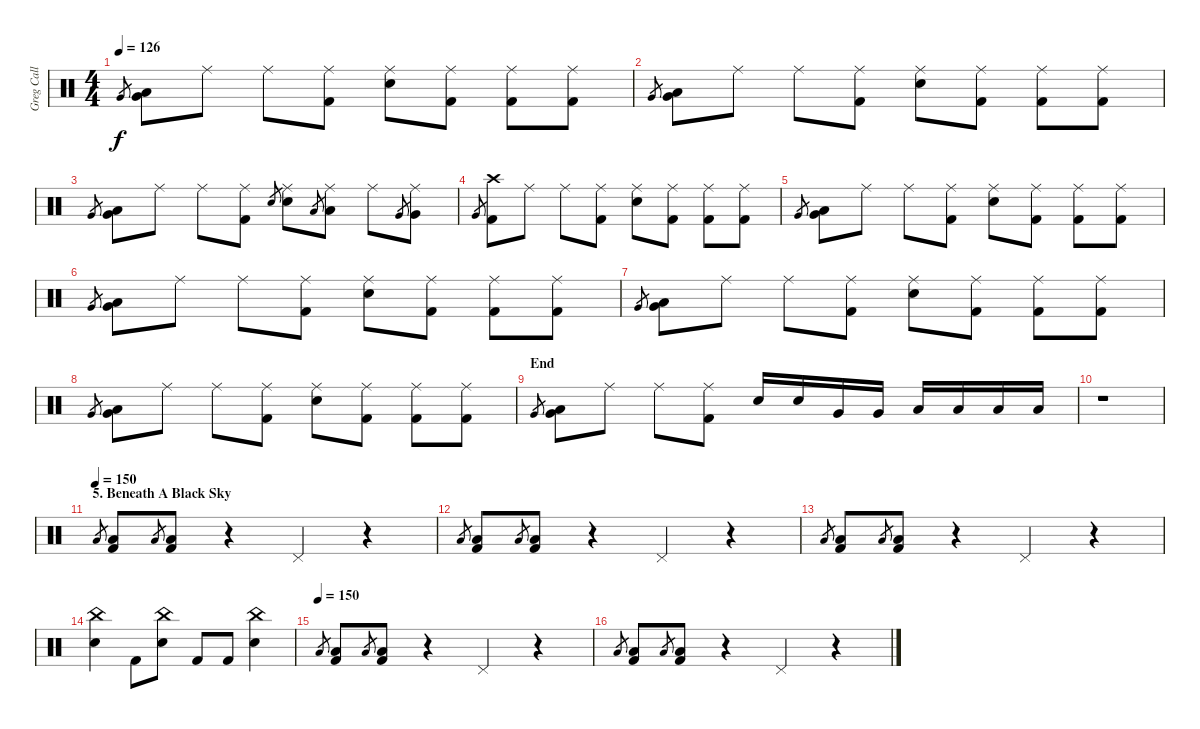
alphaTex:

\track ("Greg Call (Drums)" "Greg Call ") {instrument percussion}
\staff {score}
\articulation defaults
\ts (4 4)
\tempo 126
\clef neutral
\ks c "Very Low Tom (hit)".8{gr dy f}
("Very Low Tom (hit)" "Low Floor Tom (hit)").8 "Ride (middle)".8 "Ride (middle)".8 ("Ride (middle)" "Kick (hit) 2").8 ("Ride (middle)" "Snare (hit) 2").8 ("Ride (middle)" "Kick (hit) 2").8 ("Ride (middle)" "Kick (hit) 2").8 ("Ride (middle)" "Kick (hit) 2").8 |
"Very Low Tom (hit)".8{gr} ("Very Low Tom (hit)" "Low Floor Tom (hit)").8{volume 5} "Ride (middle)".8 "Ride (middle)".8 ("Ride (middle)" "Kick (hit) 2").8 ("Ride (middle)" "Snare (hit) 2").8 ("Ride (middle)" "Kick (hit) 2").8 ("Ride (middle)" "Kick (hit) 2").8 ("Ride (middle)" "Kick (hit) 2").8 |
"Very Low Tom (hit)".8{gr} ("Very Low Tom (hit)" "Low Floor Tom (hit)").8 "Ride (middle)".8 "Ride (middle)".8 ("Ride (middle)" "Kick (hit) 2").8 "Snare (hit) 2".8{gr} ("Ride (middle)" "Snare (hit) 2").8 "Low Tom (hit)".8{gr} ("Ride (middle)" "Low Tom (hit)").8 "Ride (middle)".8 "Very Low Tom (hit)".8{gr} ("Ride (middle)" "Very Low Tom (hit)").8 |
"Very Low Tom (hit)".8{gr} ("Crash high (hit)" "Kick (hit) 2").8 "Ride (middle)".8 "Ride (middle)".8 ("Ride (middle)" "Kick (hit) 2").8 ("Ride (middle)" "Snare (hit) 2").8 ("Ride (middle)" "Kick (hit) 2").8 ("Ride (middle)" "Kick (hit) 2").8 ("Ride (middle)" "Kick (hit) 2").8 |
"Very Low Tom (hit)".8{gr} ("Very Low Tom (hit)" "Low Floor Tom (hit)").8 "Ride (middle)".8 "Ride (middle)".8 ("Ride (middle)" "Kick (hit) 2").8 ("Ride (middle)" "Snare (hit) 2").8 ("Ride (middle)" "Kick (hit) 2").8 ("Ride (middle)" "Kick (hit) 2").8 ("Ride (middle)" "Kick (hit) 2").8 |
"Very Low Tom (hit)".8{gr} ("Very Low Tom (hit)" "Low Floor Tom (hit)").8 "Ride (middle)".8 "Ride (middle)".8 ("Ride (middle)" "Kick (hit) 2").8 ("Ride (middle)" "Snare (hit) 2").8 ("Ride (middle)" "Kick (hit) 2").8 ("Ride (middle)" "Kick (hit) 2").8 ("Ride (middle)" "Kick (hit) 2").8 |
"Very Low Tom (hit)".8{gr} ("Very Low Tom (hit)" "Low Floor Tom (hit)").8 "Ride (middle)".8 "Ride (middle)".8 ("Ride (middle)" "Kick (hit) 2").8 ("Ride (middle)" "Snare (hit) 2").8 ("Ride (middle)" "Kick (hit) 2").8 ("Ride (middle)" "Kick (hit) 2").8 ("Ride (middle)" "Kick (hit) 2").8 |
"Very Low Tom (hit)".8{gr} ("Very Low Tom (hit)" "Low Floor Tom (hit)").8 "Ride (middle)".8 "Ride (middle)".8 ("Ride (middle)" "Kick (hit) 2").8 ("Ride (middle)" "Snare (hit) 2").8 ("Ride (middle)" "Kick (hit) 2").8 ("Ride (middle)" "Kick (hit) 2").8 ("Ride (middle)" "Kick (hit) 2").8 |
\section ("" "End")
"Very Low Tom (hit)".8{gr} ("Very Low Tom (hit)" "Low Floor Tom (hit)").8 "Ride (middle)".8 "Ride (middle)".8 ("Ride (middle)" "Kick (hit) 2").8 "Snare (hit) 2".16 "Snare (hit) 2".16 "Very Low Tom (hit)".16 "Very Low Tom (hit)".16 "Low Tom (hit)".16 "Low Tom (hit)".16 "Low Floor Tom (hit)".16 "Low Floor Tom (hit)".16 |
r.1 |
\section ("" "5. Beneath A Black Sky")
\tempo (150)
"Low Floor Tom (hit)".8{gr} ("Low Floor Tom (hit)" "Kick (hit) 2").8{volume 16} "Low Floor Tom (hit)".8{gr} ("Low Floor Tom (hit)" "Kick (hit) 2").8 r.4 "Pedal Hi-Hat (hit)".4 r.4 |
"Low Floor Tom (hit)".8{gr} ("Low Floor Tom (hit)" "Kick (hit) 2").8{volume 16} "Low Floor Tom (hit)".8{gr} ("Low Floor Tom (hit)" "Kick (hit) 2").8 r.4 "Pedal Hi-Hat (hit)".4 r.4 |
"Low Floor Tom (hit)".8{gr} ("Low Floor Tom (hit)" "Kick (hit) 2").8{volume 16} "Low Floor Tom (hit)".8{gr} ("Low Floor Tom (hit)" "Kick (hit) 2").8 r.4 "Pedal Hi-Hat (hit)".4 r.4 |
("China (hit)" "Snare (hit) 2").4 "Kick (hit) 2".8 ("China (hit)" "Snare (hit) 2").8 "Kick (hit) 2".8 "Kick (hit) 2".8 ("China (hit)" "Snare (hit) 2").4 |
\tempo (150)
"Low Floor Tom (hit)".8{gr} ("Low Floor Tom (hit)" "Kick (hit) 2").8{volume 16} "Low Floor Tom (hit)".8{gr} ("Low Floor Tom (hit)" "Kick (hit) 2").8 r.4 "Pedal Hi-Hat (hit)".4 r.4 |
"Low Floor Tom (hit)".8{gr} ("Low Floor Tom (hit)" "Kick (hit) 2").8{volume 16} "Low Floor Tom (hit)".8{gr} ("Low Floor Tom (hit)" "Kick (hit) 2").8 r.4 "Pedal Hi-Hat (hit)".4 r.4
